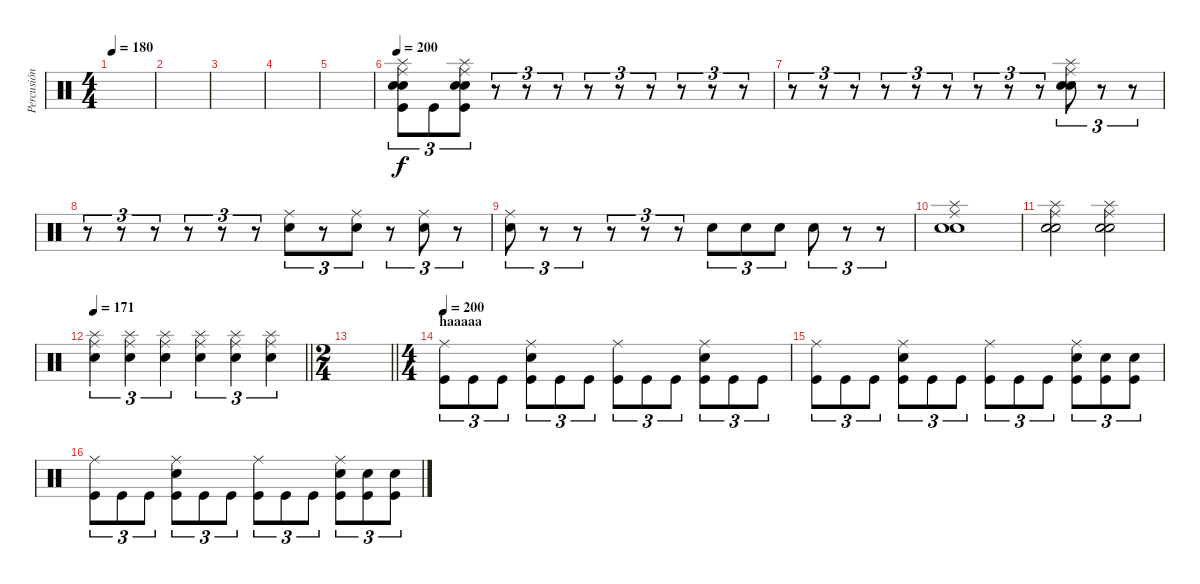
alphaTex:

\track ("Percusión" "Percusión") {instrument percussion}
\staff {score}
\articulation defaults
\ts (4 4)
\tempo 180
\clef neutral
\ks c
|
|
|
|
|
\tempo 200
("Kick (hit)" "Electric Snare (hit)" "Snare (hit) 2" "Splash (hit)" "Ride (middle)").8{tu (3 2)} "Kick (hit)".8{tu (3 2)} ("Kick (hit)" "Electric Snare (hit)" "Snare (hit) 2" "Splash (hit)" "Ride (middle)").8{tu (3 2)} r.8{tu (3 2)} r.8{tu (3 2)} r.8{tu (3 2)} r.8{tu (3 2)} r.8{tu (3 2)} r.8{tu (3 2)} r.8{tu (3 2)} r.8{tu (3 2)} r.8{tu (3 2)} |
r.8{tu (3 2)} r.8{tu (3 2)} r.8{tu (3 2)} r.8{tu (3 2)} r.8{tu (3 2)} r.8{tu (3 2)} r.8{tu (3 2)} r.8{tu (3 2)} r.8{tu (3 2)} ("Ride (middle)" "Splash (hit)" "Snare (hit) 2" "Electric Snare (hit)").8{tu (3 2)} r.8{tu (3 2)} r.8{tu (3 2)} |
r.8{tu (3 2)} r.8{tu (3 2)} r.8{tu (3 2)} r.8{tu (3 2)} r.8{tu (3 2)} r.8{tu (3 2)} ("Ride (middle)" "Electric Snare (hit)").8{tu (3 2)} r.8{tu (3 2)} ("Ride (middle)" "Electric Snare (hit)").8{tu (3 2)} r.8{tu (3 2)} ("Ride (middle)" "Electric Snare (hit)").8{tu (3 2)} r.8{tu (3 2)} |
("Ride (middle)" "Electric Snare (hit)").8{tu (3 2)} r.8{tu (3 2)} r.8{tu (3 2)} r.8{tu (3 2)} r.8{tu (3 2)} r.8{tu (3 2)} "Electric Snare (hit)".8{tu (3 2)} "Electric Snare (hit)".8{tu (3 2)} "Electric Snare (hit)".8{tu (3 2)} "Electric Snare (hit)".8{tu (3 2)} r.8{tu (3 2)} r.8{tu (3 2)} |
("Electric Snare (hit)" "Snare (hit) 2" "Ride (middle)" "Splash (hit)").1 |
("Electric Snare (hit)" "Ride (middle)" "Splash (hit)" "Snare (hit) 2").2 ("Electric Snare (hit)" "Ride (middle)" "Splash (hit)" "Snare (hit) 2").2 |
\tempo 171
\barLineRight lightlight
("Ride (middle)" "Splash (hit)" "Electric Snare (hit)").4{tu (3 2)} ("Ride (middle)" "Splash (hit)" "Electric Snare (hit)").4{tu (3 2)} ("Ride (middle)" "Splash (hit)" "Electric Snare (hit)").4{tu (3 2)} ("Ride (middle)" "Splash (hit)" "Electric Snare (hit)").4{tu (3 2)} ("Ride (middle)" "Splash (hit)" "Electric Snare (hit)").4{tu (3 2)} ("Ride (middle)" "Splash (hit)" "Electric Snare (hit)").4{tu (3 2)} |
\ts (2 4)
\barLineRight lightlight
|
\ts (4 4)
\section ("" "haaaaa")
\tempo 200
("Kick (hit)" "Ride (middle)").8{tu (3 2)} "Kick (hit)".8{tu (3 2)} "Kick (hit)".8{tu (3 2)} ("Kick (hit)" "Electric Snare (hit)" "Ride (middle)").8{tu (3 2)} "Kick (hit)".8{tu (3 2)} "Kick (hit)".8{tu (3 2)} ("Kick (hit)" "Ride (middle)").8{tu (3 2)} "Kick (hit)".8{tu (3 2)} "Kick (hit)".8{tu (3 2)} ("Kick (hit)" "Electric Snare (hit)" "Ride (middle)").8{tu (3 2)} "Kick (hit)".8{tu (3 2)} "Kick (hit)".8{tu (3 2)} |
("Kick (hit)" "Ride (middle)").8{tu (3 2)} "Kick (hit)".8{tu (3 2)} "Kick (hit)".8{tu (3 2)} ("Kick (hit)" "Electric Snare (hit)" "Ride (middle)").8{tu (3 2)} "Kick (hit)".8{tu (3 2)} "Kick (hit)".8{tu (3 2)} ("Kick (hit)" "Ride (middle)").8{tu (3 2)} "Kick (hit)".8{tu (3 2)} "Kick (hit)".8{tu (3 2)} ("Kick (hit)" "Electric Snare (hit)" "Ride (middle)").8{tu (3 2)} ("Kick (hit)" "Electric Snare (hit)").8{tu (3 2)} ("Kick (hit)" "Electric Snare (hit)").8{tu (3 2)} |
("Kick (hit)" "Ride (middle)").8{tu (3 2)} "Kick (hit)".8{tu (3 2)} "Kick (hit)".8{tu (3 2)} ("Kick (hit)" "Electric Snare (hit)" "Ride (middle)").8{tu (3 2)} "Kick (hit)".8{tu (3 2)} "Kick (hit)".8{tu (3 2)} ("Kick (hit)" "Ride (middle)").8{tu (3 2)} "Kick (hit)".8{tu (3 2)} "Kick (hit)".8{tu (3 2)} ("Kick (hit)" "Electric Snare (hit)" "Ride (middle)").8{tu (3 2)} ("Kick (hit)" "Electric Snare (hit)").8{tu (3 2)} ("Kick (hit)" "Electric Snare (hit)").8{tu (3 2)}
